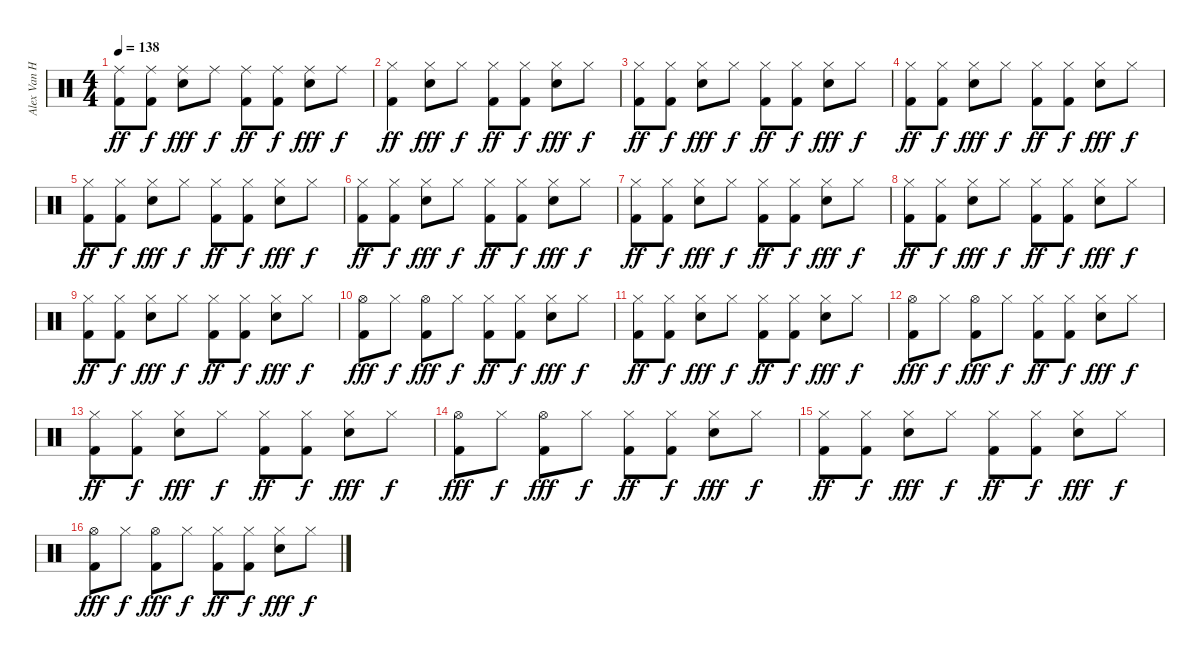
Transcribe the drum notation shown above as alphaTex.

\track ("Alex Van Halen " "Alex Van H") {instrument percussion}
\staff {score}
\articulation defaults
\ts (4 4)
\tempo 138
\clef neutral
\ks c
("Kick (hit) 2" "Ride (middle)").8{dy ff} ("Kick (hit) 2" "Ride (middle)").8{dy f} ("Snare (hit) 2" "Ride (middle)").8{dy fff} "Ride (middle)".8{dy f} ("Kick (hit) 2" "Ride (middle)").8{dy ff} ("Kick (hit) 2" "Ride (middle)").8{dy f} ("Snare (hit) 2" "Ride (middle)").8{dy fff} "Ride (middle)".8{dy f} |
("Hi-Hat (closed)" "Kick (hit) 2").4{dy ff} ("Hi-Hat (closed)" "Snare (hit) 2").8{dy fff} "Hi-Hat (closed)".8{dy f} ("Hi-Hat (closed)" "Kick (hit) 2").8{dy ff} ("Hi-Hat (closed)" "Kick (hit) 2").8{dy f} ("Hi-Hat (closed)" "Snare (hit) 2").8{dy fff} "Hi-Hat (closed)".8{dy f} |
("Hi-Hat (closed)" "Kick (hit) 2").8{dy ff} ("Hi-Hat (closed)" "Kick (hit) 2").8{dy f} ("Hi-Hat (closed)" "Snare (hit) 2").8{dy fff} "Hi-Hat (closed)".8{dy f} ("Hi-Hat (closed)" "Kick (hit) 2").8{dy ff} ("Hi-Hat (closed)" "Kick (hit) 2").8{dy f} ("Hi-Hat (closed)" "Snare (hit) 2").8{dy fff} "Hi-Hat (closed)".8{dy f} |
("Hi-Hat (closed)" "Kick (hit) 2").8{dy ff} ("Hi-Hat (closed)" "Kick (hit) 2").8{dy f} ("Hi-Hat (closed)" "Snare (hit) 2").8{dy fff} "Hi-Hat (closed)".8{dy f} ("Hi-Hat (closed)" "Kick (hit) 2").8{dy ff} ("Hi-Hat (closed)" "Kick (hit) 2").8{dy f} ("Hi-Hat (closed)" "Snare (hit) 2").8{dy fff} "Hi-Hat (closed)".8{dy f} |
("Hi-Hat (closed)" "Kick (hit) 2").8{dy ff} ("Hi-Hat (closed)" "Kick (hit) 2").8{dy f} ("Hi-Hat (closed)" "Snare (hit) 2").8{dy fff} "Hi-Hat (closed)".8{dy f} ("Hi-Hat (closed)" "Kick (hit) 2").8{dy ff} ("Hi-Hat (closed)" "Kick (hit) 2").8{dy f} ("Hi-Hat (closed)" "Snare (hit) 2").8{dy fff} "Hi-Hat (closed)".8{dy f} |
("Hi-Hat (closed)" "Kick (hit) 2").8{dy ff} ("Hi-Hat (closed)" "Kick (hit) 2").8{dy f} ("Hi-Hat (closed)" "Snare (hit) 2").8{dy fff} "Hi-Hat (closed)".8{dy f} ("Hi-Hat (closed)" "Kick (hit) 2").8{dy ff} ("Hi-Hat (closed)" "Kick (hit) 2").8{dy f} ("Hi-Hat (closed)" "Snare (hit) 2").8{dy fff} "Hi-Hat (closed)".8{dy f} |
("Hi-Hat (closed)" "Kick (hit) 2").8{dy ff} ("Hi-Hat (closed)" "Kick (hit) 2").8{dy f} ("Hi-Hat (closed)" "Snare (hit) 2").8{dy fff} "Hi-Hat (closed)".8{dy f} ("Hi-Hat (closed)" "Kick (hit) 2").8{dy ff} ("Hi-Hat (closed)" "Kick (hit) 2").8{dy f} ("Hi-Hat (closed)" "Snare (hit) 2").8{dy fff} "Hi-Hat (closed)".8{dy f} |
("Hi-Hat (closed)" "Kick (hit) 2").8{dy ff} ("Hi-Hat (closed)" "Kick (hit) 2").8{dy f} ("Hi-Hat (closed)" "Snare (hit) 2").8{dy fff} "Hi-Hat (closed)".8{dy f} ("Hi-Hat (closed)" "Kick (hit) 2").8{dy ff} ("Hi-Hat (closed)" "Kick (hit) 2").8{dy f} ("Hi-Hat (closed)" "Snare (hit) 2").8{dy fff} "Hi-Hat (closed)".8{dy f} |
("Hi-Hat (closed)" "Kick (hit) 2").8{dy ff} ("Hi-Hat (closed)" "Kick (hit) 2").8{dy f} ("Hi-Hat (closed)" "Snare (hit) 2").8{dy fff} "Hi-Hat (closed)".8{dy f} ("Hi-Hat (closed)" "Kick (hit) 2").8{dy ff} ("Hi-Hat (closed)" "Kick (hit) 2").8{dy f} ("Hi-Hat (closed)" "Snare (hit) 2").8{dy fff} "Hi-Hat (closed)".8{dy f} |
("Kick (hit) 2" "Hi-Hat (open)").8{dy fff} "Hi-Hat (closed)".8{dy f} ("Kick (hit) 2" "Hi-Hat (open)").8{dy fff} "Hi-Hat (closed)".8{dy f} ("Kick (hit) 2" "Hi-Hat (closed)").8{dy ff} ("Kick (hit) 2" "Hi-Hat (closed)").8{dy f} ("Snare (hit) 2" "Hi-Hat (closed)").8{dy fff} "Hi-Hat (closed)".8{dy f} |
("Kick (hit) 2" "Hi-Hat (closed)").8{dy ff} ("Kick (hit) 2" "Hi-Hat (closed)").8{dy f} ("Snare (hit) 2" "Hi-Hat (closed)").8{dy fff} "Hi-Hat (closed)".8{dy f} ("Kick (hit) 2" "Hi-Hat (closed)").8{dy ff} ("Kick (hit) 2" "Hi-Hat (closed)").8{dy f} ("Snare (hit) 2" "Hi-Hat (closed)").8{dy fff} "Hi-Hat (closed)".8{dy f} |
("Kick (hit) 2" "Hi-Hat (open)").8{dy fff} "Hi-Hat (closed)".8{dy f} ("Kick (hit) 2" "Hi-Hat (open)").8{dy fff} "Hi-Hat (closed)".8{dy f} ("Kick (hit) 2" "Hi-Hat (closed)").8{dy ff} ("Kick (hit) 2" "Hi-Hat (closed)").8{dy f} ("Snare (hit) 2" "Hi-Hat (closed)").8{dy fff} "Hi-Hat (closed)".8{dy f} |
("Kick (hit) 2" "Hi-Hat (closed)").8{dy ff} ("Kick (hit) 2" "Hi-Hat (closed)").8{dy f} ("Snare (hit) 2" "Hi-Hat (closed)").8{dy fff} "Hi-Hat (closed)".8{dy f} ("Kick (hit) 2" "Hi-Hat (closed)").8{dy ff} ("Kick (hit) 2" "Hi-Hat (closed)").8{dy f} ("Snare (hit) 2" "Hi-Hat (closed)").8{dy fff} "Hi-Hat (closed)".8{dy f} |
("Kick (hit) 2" "Hi-Hat (open)").8{dy fff} "Hi-Hat (closed)".8{dy f} ("Kick (hit) 2" "Hi-Hat (open)").8{dy fff} "Hi-Hat (closed)".8{dy f} ("Kick (hit) 2" "Hi-Hat (closed)").8{dy ff} ("Kick (hit) 2" "Hi-Hat (closed)").8{dy f} ("Snare (hit) 2" "Hi-Hat (closed)").8{dy fff} "Hi-Hat (closed)".8{dy f} |
("Kick (hit) 2" "Hi-Hat (closed)").8{dy ff} ("Kick (hit) 2" "Hi-Hat (closed)").8{dy f} ("Snare (hit) 2" "Hi-Hat (closed)").8{dy fff} "Hi-Hat (closed)".8{dy f} ("Kick (hit) 2" "Hi-Hat (closed)").8{dy ff} ("Kick (hit) 2" "Hi-Hat (closed)").8{dy f} ("Snare (hit) 2" "Hi-Hat (closed)").8{dy fff} "Hi-Hat (closed)".8{dy f} |
("Kick (hit) 2" "Hi-Hat (open)").8{dy fff} "Hi-Hat (closed)".8{dy f} ("Kick (hit) 2" "Hi-Hat (open)").8{dy fff} "Hi-Hat (closed)".8{dy f} ("Kick (hit) 2" "Hi-Hat (closed)").8{dy ff} ("Kick (hit) 2" "Hi-Hat (closed)").8{dy f} ("Snare (hit) 2" "Hi-Hat (closed)").8{dy fff} "Hi-Hat (closed)".8{dy f}
